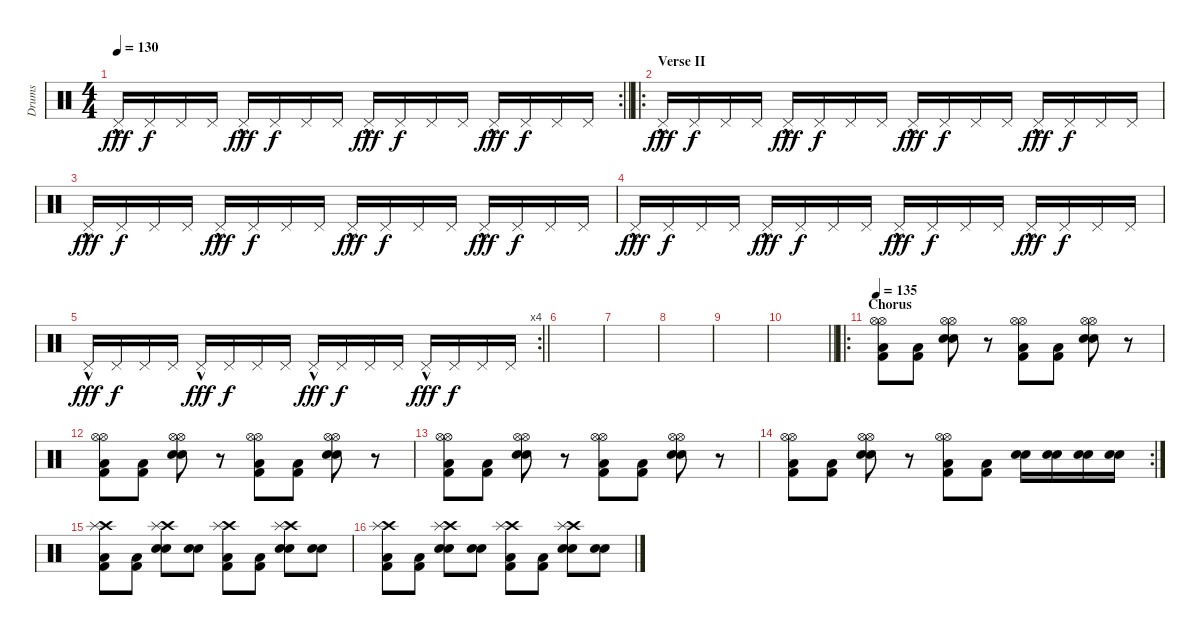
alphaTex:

\track ("Drums" "Drums") {instrument percussion}
\staff {score}
\articulation defaults
\rc 2
\ts (4 4)
\tempo 130
\clef neutral
\barLineRight lightlight
\ks c "Pedal Hi-Hat (hit)"{hac}.16{dy fff} "Pedal Hi-Hat (hit)".16{dy f} "Pedal Hi-Hat (hit)".16 "Pedal Hi-Hat (hit)".16 "Pedal Hi-Hat (hit)"{hac}.16{dy fff} "Pedal Hi-Hat (hit)".16{dy f} "Pedal Hi-Hat (hit)".16 "Pedal Hi-Hat (hit)".16 "Pedal Hi-Hat (hit)"{hac}.16{dy fff} "Pedal Hi-Hat (hit)".16{dy f} "Pedal Hi-Hat (hit)".16 "Pedal Hi-Hat (hit)".16 "Pedal Hi-Hat (hit)"{hac}.16{dy fff} "Pedal Hi-Hat (hit)".16{dy f} "Pedal Hi-Hat (hit)".16 "Pedal Hi-Hat (hit)".16
|
\ro
\section ("" "Verse II")
"Pedal Hi-Hat (hit)"{hac}.16{dy fff} "Pedal Hi-Hat (hit)".16{dy f} "Pedal Hi-Hat (hit)".16 "Pedal Hi-Hat (hit)".16 "Pedal Hi-Hat (hit)"{hac}.16{dy fff} "Pedal Hi-Hat (hit)".16{dy f} "Pedal Hi-Hat (hit)".16 "Pedal Hi-Hat (hit)".16 "Pedal Hi-Hat (hit)"{hac}.16{dy fff} "Pedal Hi-Hat (hit)".16{dy f} "Pedal Hi-Hat (hit)".16 "Pedal Hi-Hat (hit)".16 "Pedal Hi-Hat (hit)"{hac}.16{dy fff} "Pedal Hi-Hat (hit)".16{dy f} "Pedal Hi-Hat (hit)".16 "Pedal Hi-Hat (hit)".16 |
"Pedal Hi-Hat (hit)"{hac}.16{dy fff} "Pedal Hi-Hat (hit)".16{dy f} "Pedal Hi-Hat (hit)".16 "Pedal Hi-Hat (hit)".16 "Pedal Hi-Hat (hit)"{hac}.16{dy fff} "Pedal Hi-Hat (hit)".16{dy f} "Pedal Hi-Hat (hit)".16 "Pedal Hi-Hat (hit)".16 "Pedal Hi-Hat (hit)"{hac}.16{dy fff} "Pedal Hi-Hat (hit)".16{dy f} "Pedal Hi-Hat (hit)".16 "Pedal Hi-Hat (hit)".16 "Pedal Hi-Hat (hit)"{hac}.16{dy fff} "Pedal Hi-Hat (hit)".16{dy f} "Pedal Hi-Hat (hit)".16 "Pedal Hi-Hat (hit)".16 |
"Pedal Hi-Hat (hit)"{hac}.16{dy fff} "Pedal Hi-Hat (hit)".16{dy f} "Pedal Hi-Hat (hit)".16 "Pedal Hi-Hat (hit)".16 "Pedal Hi-Hat (hit)"{hac}.16{dy fff} "Pedal Hi-Hat (hit)".16{dy f} "Pedal Hi-Hat (hit)".16 "Pedal Hi-Hat (hit)".16 "Pedal Hi-Hat (hit)"{hac}.16{dy fff} "Pedal Hi-Hat (hit)".16{dy f} "Pedal Hi-Hat (hit)".16 "Pedal Hi-Hat (hit)".16 "Pedal Hi-Hat (hit)"{hac}.16{dy fff} "Pedal Hi-Hat (hit)".16{dy f} "Pedal Hi-Hat (hit)".16 "Pedal Hi-Hat (hit)".16 |
\rc 4
\barLineRight lightlight "Pedal Hi-Hat (hit)"{hac}.16{dy fff} "Pedal Hi-Hat (hit)".16{dy f} "Pedal Hi-Hat (hit)".16 "Pedal Hi-Hat (hit)".16 "Pedal Hi-Hat (hit)"{hac}.16{dy fff} "Pedal Hi-Hat (hit)".16{dy f} "Pedal Hi-Hat (hit)".16 "Pedal Hi-Hat (hit)".16 "Pedal Hi-Hat (hit)"{hac}.16{dy fff} "Pedal Hi-Hat (hit)".16{dy f} "Pedal Hi-Hat (hit)".16 "Pedal Hi-Hat (hit)".16 "Pedal Hi-Hat (hit)"{hac}.16{dy fff} "Pedal Hi-Hat (hit)".16{dy f} "Pedal Hi-Hat (hit)".16 "Pedal Hi-Hat (hit)".16
|
\section ("" "")
|
|
|
|
\barLineRight lightlight
|
\ro
\section ("" "Chorus")
\tempo 135
("Hi-Hat (open)" "Hi-Hat (open)" "Kick (hit) 2" "Low Floor Tom (hit)").8 ("Kick (hit) 2" "Low Floor Tom (hit)").8 ("Hi-Hat (open)" "Hi-Hat (open)" "Electric Snare (hit)" "Electric Snare (hit)").8 r.8 ("Hi-Hat (open)" "Hi-Hat (open)" "Kick (hit) 2" "Low Floor Tom (hit)").8 ("Kick (hit) 2" "Low Floor Tom (hit)").8 ("Hi-Hat (open)" "Hi-Hat (open)" "Electric Snare (hit)" "Electric Snare (hit)").8 r.8 |
("Hi-Hat (open)" "Hi-Hat (open)" "Kick (hit) 2" "Low Floor Tom (hit)").8 ("Kick (hit) 2" "Low Floor Tom (hit)").8 ("Hi-Hat (open)" "Hi-Hat (open)" "Electric Snare (hit)" "Electric Snare (hit)").8 r.8 ("Hi-Hat (open)" "Hi-Hat (open)" "Kick (hit) 2" "Low Floor Tom (hit)").8 ("Kick (hit) 2" "Low Floor Tom (hit)").8 ("Hi-Hat (open)" "Hi-Hat (open)" "Electric Snare (hit)" "Electric Snare (hit)").8 r.8 |
("Hi-Hat (open)" "Hi-Hat (open)" "Kick (hit) 2" "Low Floor Tom (hit)").8 ("Kick (hit) 2" "Low Floor Tom (hit)").8 ("Hi-Hat (open)" "Hi-Hat (open)" "Electric Snare (hit)" "Electric Snare (hit)").8 r.8 ("Hi-Hat (open)" "Hi-Hat (open)" "Kick (hit) 2" "Low Floor Tom (hit)").8 ("Kick (hit) 2" "Low Floor Tom (hit)").8 ("Hi-Hat (open)" "Hi-Hat (open)" "Electric Snare (hit)" "Electric Snare (hit)").8 r.8 |
\rc 2
("Hi-Hat (open)" "Hi-Hat (open)" "Kick (hit) 2" "Low Floor Tom (hit)").8 ("Kick (hit) 2" "Low Floor Tom (hit)").8 ("Hi-Hat (open)" "Hi-Hat (open)" "Electric Snare (hit)" "Electric Snare (hit)").8 r.8 ("Hi-Hat (open)" "Hi-Hat (open)" "Kick (hit) 2" "Low Floor Tom (hit)").8 ("Kick (hit) 2" "Low Floor Tom (hit)").8 ("Snare (hit) 2" "Electric Snare (hit)").16 ("Snare (hit) 2" "Electric Snare (hit)").16 ("Snare (hit) 2" "Electric Snare (hit)").16 ("Snare (hit) 2" "Electric Snare (hit)").16 |
("Crash high (hit)" "Splash (hit)" "Kick (hit) 2" "Low Floor Tom (hit)").8 ("Kick (hit) 2" "Low Floor Tom (hit)").8 ("Crash high (hit)" "Splash (hit)" "Electric Snare (hit)" "Electric Snare (hit)").8 ("Electric Snare (hit)" "Electric Snare (hit)").8 ("Crash high (hit)" "Splash (hit)" "Kick (hit) 2" "Low Floor Tom (hit)").8 ("Kick (hit) 2" "Low Floor Tom (hit)").8 ("Crash high (hit)" "Splash (hit)" "Electric Snare (hit)" "Electric Snare (hit)").8 ("Electric Snare (hit)" "Electric Snare (hit)").8 |
("Crash high (hit)" "Splash (hit)" "Kick (hit) 2" "Low Floor Tom (hit)").8 ("Kick (hit) 2" "Low Floor Tom (hit)").8 ("Crash high (hit)" "Splash (hit)" "Electric Snare (hit)" "Electric Snare (hit)").8 ("Electric Snare (hit)" "Electric Snare (hit)").8 ("Crash high (hit)" "Splash (hit)" "Kick (hit) 2" "Low Floor Tom (hit)").8 ("Kick (hit) 2" "Low Floor Tom (hit)").8 ("Crash high (hit)" "Splash (hit)" "Electric Snare (hit)" "Electric Snare (hit)").8 ("Electric Snare (hit)" "Electric Snare (hit)").8
